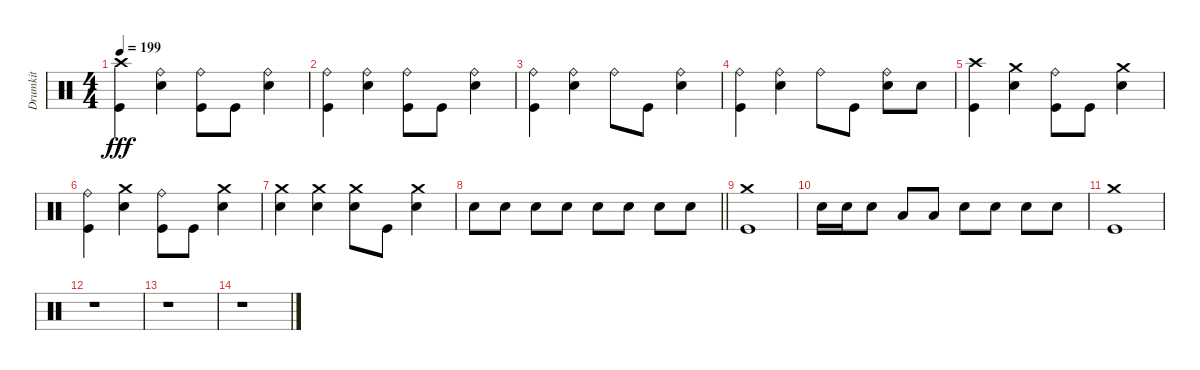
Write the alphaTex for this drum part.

\track ("Drumkit" "Drumkit") {instrument percussion}
\staff
\articulation defaults
\ts (4 4)
\tempo 199
\clef neutral
\ks c
("Crash high (hit)" "Kick (hit)").4{dy fff} ("Snare (hit) 2" "Ride (bell)").4 ("Kick (hit)" "Ride (bell)").8 "Kick (hit)".8 ("Snare (hit) 2" "Ride (bell)").4 |
("Kick (hit)" "Ride (bell)").4 ("Snare (hit) 2" "Ride (bell)").4 ("Kick (hit)" "Ride (bell)").8 "Kick (hit)".8 ("Snare (hit) 2" "Ride (bell)").4 |
("Kick (hit)" "Ride (bell)").4 ("Snare (hit) 2" "Ride (bell)").4 "Ride (bell)".8 "Kick (hit)".8 ("Snare (hit) 2" "Ride (bell)").4 |
("Kick (hit)" "Ride (bell)").4 ("Snare (hit) 2" "Ride (bell)").4 "Ride (bell)".8 "Kick (hit)".8 ("Snare (hit) 2" "Ride (bell)").8 "Snare (hit) 2".8 |
("Crash high (hit)" "Kick (hit)").4 ("Snare (hit) 2" "Crash medium (hit)").4 ("Kick (hit)" "Ride (bell)").8 "Kick (hit)".8 ("Snare (hit) 2" "Crash medium (hit)").4 |
("Kick (hit)" "Ride (bell)").4 ("Snare (hit) 2" "Crash medium (hit)").4 ("Kick (hit)" "Ride (bell)").8 "Kick (hit)".8 ("Snare (hit) 2" "Crash medium (hit)").4 |
("Snare (hit) 2" "Crash medium (hit)").4 ("Snare (hit) 2" "Crash medium (hit)").4 ("Snare (hit) 2" "Crash medium (hit)").8 "Kick (hit)".8 ("Snare (hit) 2" "Crash medium (hit)").4 |
\barLineRight lightlight "Snare (hit) 2".8 "Snare (hit) 2".8 "Snare (hit) 2".8 "Snare (hit) 2".8 "Snare (hit) 2".8 "Snare (hit) 2".8 "Snare (hit) 2".8 "Snare (hit) 2".8
|
("Kick (hit)" "Crash medium (hit)").1 |
"Snare (hit) 2".16 "Snare (hit) 2".16 "Snare (hit) 2".8 "Low Tom (hit)".8 "Low Tom (hit)".8 "Snare (hit) 2".8 "Snare (hit) 2".8 "Snare (hit) 2".8 "Snare (hit) 2".8 |
("Kick (hit)" "Crash medium (hit)").1 |
r.1 |
r.1 |
r.1
